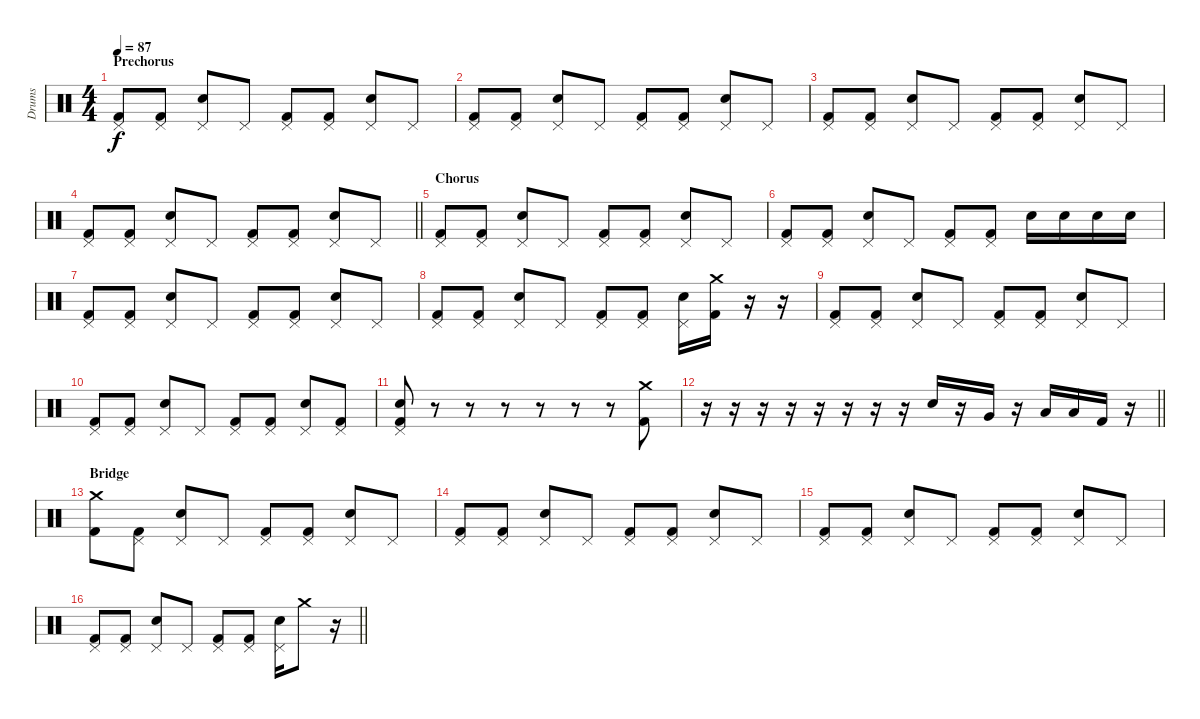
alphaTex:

\track ("Drums" "Drums") {instrument percussion}
\staff {score}
\articulation defaults
\ts (4 4)
\section ("" "Prechorus")
\tempo 87
\clef neutral
\ks c
("Pedal Hi-Hat (hit)" "Kick (hit) 2").8{dy f} ("Pedal Hi-Hat (hit)" "Kick (hit) 2").8 ("Pedal Hi-Hat (hit)" "Snare (hit) 2").8 "Pedal Hi-Hat (hit)".8 ("Pedal Hi-Hat (hit)" "Kick (hit) 2").8 ("Pedal Hi-Hat (hit)" "Kick (hit) 2").8 ("Pedal Hi-Hat (hit)" "Snare (hit) 2").8 "Pedal Hi-Hat (hit)".8 |
("Pedal Hi-Hat (hit)" "Kick (hit) 2").8 ("Pedal Hi-Hat (hit)" "Kick (hit) 2").8 ("Pedal Hi-Hat (hit)" "Snare (hit) 2").8 "Pedal Hi-Hat (hit)".8 ("Pedal Hi-Hat (hit)" "Kick (hit) 2").8 ("Pedal Hi-Hat (hit)" "Kick (hit) 2").8 ("Pedal Hi-Hat (hit)" "Snare (hit) 2").8 "Pedal Hi-Hat (hit)".8 |
("Pedal Hi-Hat (hit)" "Kick (hit) 2").8 ("Pedal Hi-Hat (hit)" "Kick (hit) 2").8 ("Pedal Hi-Hat (hit)" "Snare (hit) 2").8 "Pedal Hi-Hat (hit)".8 ("Pedal Hi-Hat (hit)" "Kick (hit) 2").8 ("Pedal Hi-Hat (hit)" "Kick (hit) 2").8 ("Pedal Hi-Hat (hit)" "Snare (hit) 2").8 "Pedal Hi-Hat (hit)".8 |
\barLineRight lightlight
("Pedal Hi-Hat (hit)" "Kick (hit) 2").8 ("Pedal Hi-Hat (hit)" "Kick (hit) 2").8 ("Pedal Hi-Hat (hit)" "Snare (hit) 2").8 "Pedal Hi-Hat (hit)".8 ("Pedal Hi-Hat (hit)" "Kick (hit) 2").8 ("Pedal Hi-Hat (hit)" "Kick (hit) 2").8 ("Pedal Hi-Hat (hit)" "Snare (hit) 2").8 "Pedal Hi-Hat (hit)".8 |
\section ("" "Chorus")
("Pedal Hi-Hat (hit)" "Kick (hit) 2").8 ("Pedal Hi-Hat (hit)" "Kick (hit) 2").8 ("Pedal Hi-Hat (hit)" "Snare (hit) 2").8 "Pedal Hi-Hat (hit)".8 ("Pedal Hi-Hat (hit)" "Kick (hit) 2").8 ("Pedal Hi-Hat (hit)" "Kick (hit) 2").8 ("Pedal Hi-Hat (hit)" "Snare (hit) 2").8 "Pedal Hi-Hat (hit)".8 |
("Pedal Hi-Hat (hit)" "Kick (hit) 2").8 ("Pedal Hi-Hat (hit)" "Kick (hit) 2").8 ("Pedal Hi-Hat (hit)" "Snare (hit) 2").8 "Pedal Hi-Hat (hit)".8 ("Pedal Hi-Hat (hit)" "Kick (hit) 2").8 ("Pedal Hi-Hat (hit)" "Kick (hit) 2").8 "Snare (hit) 2".16 "Snare (hit) 2".16 "Snare (hit) 2".16 "Snare (hit) 2".16 |
("Pedal Hi-Hat (hit)" "Kick (hit) 2").8 ("Pedal Hi-Hat (hit)" "Kick (hit) 2").8 ("Pedal Hi-Hat (hit)" "Snare (hit) 2").8 "Pedal Hi-Hat (hit)".8 ("Pedal Hi-Hat (hit)" "Kick (hit) 2").8 ("Pedal Hi-Hat (hit)" "Kick (hit) 2").8 ("Pedal Hi-Hat (hit)" "Snare (hit) 2").8 "Pedal Hi-Hat (hit)".8 |
("Pedal Hi-Hat (hit)" "Kick (hit) 2").8 ("Pedal Hi-Hat (hit)" "Kick (hit) 2").8 ("Pedal Hi-Hat (hit)" "Snare (hit) 2").8 "Pedal Hi-Hat (hit)".8 ("Pedal Hi-Hat (hit)" "Kick (hit) 2").8 ("Pedal Hi-Hat (hit)" "Kick (hit) 2").8 ("Pedal Hi-Hat (hit)" "Snare (hit) 2").16 ("Crash medium (hit)" "Kick (hit) 2").16 r.16 r.16 |
("Pedal Hi-Hat (hit)" "Kick (hit) 2").8 ("Pedal Hi-Hat (hit)" "Kick (hit) 2").8 ("Pedal Hi-Hat (hit)" "Snare (hit) 2").8 "Pedal Hi-Hat (hit)".8 ("Pedal Hi-Hat (hit)" "Kick (hit) 2").8 ("Pedal Hi-Hat (hit)" "Kick (hit) 2").8 ("Pedal Hi-Hat (hit)" "Snare (hit) 2").8 "Pedal Hi-Hat (hit)".8 |
("Pedal Hi-Hat (hit)" "Kick (hit) 2").8 ("Pedal Hi-Hat (hit)" "Kick (hit) 2").8 ("Pedal Hi-Hat (hit)" "Snare (hit) 2").8 "Pedal Hi-Hat (hit)".8 ("Pedal Hi-Hat (hit)" "Kick (hit) 2").8 ("Pedal Hi-Hat (hit)" "Kick (hit) 2").8 ("Pedal Hi-Hat (hit)" "Snare (hit) 2").8 ("Pedal Hi-Hat (hit)" "Kick (hit) 2").8 |
("Pedal Hi-Hat (hit)" "Snare (hit) 2" "Kick (hit) 2").8 r.8 r.8 r.8 r.8 r.8 r.8 ("Crash medium (hit)" "Kick (hit) 2").8 |
\barLineRight lightlight
r.16 r.16 r.16 r.16 r.16 r.16 r.16 r.16 "Snare (hit) 2".16 r.16 "Very Low Tom (hit)".16 r.16 "Low Floor Tom (hit)".16 "Low Floor Tom (hit)".16 "Kick (hit) 2".16 r.16 |
\section ("" "Bridge")
("Crash medium (hit)" "Kick (hit) 2").8 ("Pedal Hi-Hat (hit)" "Kick (hit) 2").8 ("Pedal Hi-Hat (hit)" "Snare (hit) 2").8 "Pedal Hi-Hat (hit)".8 ("Pedal Hi-Hat (hit)" "Kick (hit) 2").8 ("Pedal Hi-Hat (hit)" "Kick (hit) 2").8 ("Pedal Hi-Hat (hit)" "Snare (hit) 2").8 "Pedal Hi-Hat (hit)".8 |
("Pedal Hi-Hat (hit)" "Kick (hit) 2").8 ("Pedal Hi-Hat (hit)" "Kick (hit) 2").8 ("Pedal Hi-Hat (hit)" "Snare (hit) 2").8 "Pedal Hi-Hat (hit)".8 ("Pedal Hi-Hat (hit)" "Kick (hit) 2").8 ("Pedal Hi-Hat (hit)" "Kick (hit) 2").8 ("Pedal Hi-Hat (hit)" "Snare (hit) 2").8 "Pedal Hi-Hat (hit)".8 |
("Pedal Hi-Hat (hit)" "Kick (hit) 2").8 ("Pedal Hi-Hat (hit)" "Kick (hit) 2").8 ("Pedal Hi-Hat (hit)" "Snare (hit) 2").8 "Pedal Hi-Hat (hit)".8 ("Pedal Hi-Hat (hit)" "Kick (hit) 2").8 ("Pedal Hi-Hat (hit)" "Kick (hit) 2").8 ("Pedal Hi-Hat (hit)" "Snare (hit) 2").8 "Pedal Hi-Hat (hit)".8 |
\barLineRight lightlight
("Pedal Hi-Hat (hit)" "Kick (hit) 2").8 ("Pedal Hi-Hat (hit)" "Kick (hit) 2").8 ("Pedal Hi-Hat (hit)" "Snare (hit) 2").8 "Pedal Hi-Hat (hit)".8 ("Pedal Hi-Hat (hit)" "Kick (hit) 2").8 ("Pedal Hi-Hat (hit)" "Kick (hit) 2").8 ("Pedal Hi-Hat (hit)" "Snare (hit) 2").16 "Crash medium (hit)".8 r.16
